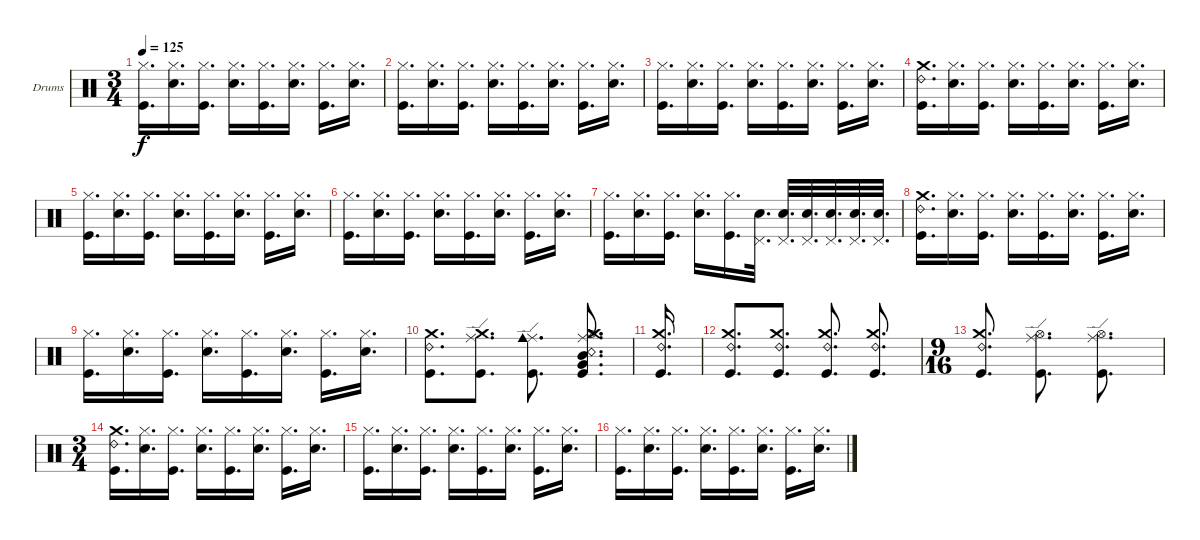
\defaultSystemsLayout 4
\bracketExtendMode groupsimilarinstruments
\firstSystemTrackNameOrientation horizontal
\otherSystemsTrackNameOrientation horizontal
\track ("Drumkit" "Drums") {instrument percussion}
\staff {score}
\articulation defaults
\ts (3 4)
\tempo 125
\clef neutral
\ks c
("Kick (hit)" "Hi-Hat (closed)").16{d dy f} ("Snare (hit) 2" "Hi-Hat (closed)").16{d} ("Kick (hit)" "Hi-Hat (closed)").16{d} ("Snare (hit) 2" "Hi-Hat (closed)").16{d} ("Kick (hit)" "Hi-Hat (closed)").16{d} ("Snare (hit) 2" "Hi-Hat (closed)").16{d} ("Kick (hit)" "Hi-Hat (closed)").16{d} ("Snare (hit) 2" "Hi-Hat (closed)").16{d} |
("Kick (hit)" "Hi-Hat (closed)").16{d} ("Snare (hit) 2" "Hi-Hat (closed)").16{d} ("Kick (hit)" "Hi-Hat (closed)").16{d} ("Snare (hit) 2" "Hi-Hat (closed)").16{d} ("Kick (hit)" "Hi-Hat (closed)").16{d} ("Snare (hit) 2" "Hi-Hat (closed)").16{d} ("Kick (hit)" "Hi-Hat (closed)").16{d} ("Snare (hit) 2" "Hi-Hat (closed)").16{d} |
("Kick (hit)" "Hi-Hat (closed)").16{d} ("Snare (hit) 2" "Hi-Hat (closed)").16{d} ("Kick (hit)" "Hi-Hat (closed)").16{d} ("Snare (hit) 2" "Hi-Hat (closed)").16{d} ("Kick (hit)" "Hi-Hat (closed)").16{d} ("Snare (hit) 2" "Hi-Hat (closed)").16{d} ("Kick (hit)" "Hi-Hat (closed)").16{d} ("Snare (hit) 2" "Hi-Hat (closed)").16{d} |
("Kick (hit)" "Crash medium (hit)" "Ride (bell) 2").16{d} ("Snare (hit) 2" "Hi-Hat (closed)").16{d} ("Kick (hit)" "Hi-Hat (closed)").16{d} ("Snare (hit) 2" "Hi-Hat (closed)").16{d} ("Kick (hit)" "Hi-Hat (closed)").16{d} ("Snare (hit) 2" "Hi-Hat (closed)").16{d} ("Kick (hit)" "Hi-Hat (closed)").16{d} ("Snare (hit) 2" "Hi-Hat (closed)").16{d} |
("Kick (hit)" "Hi-Hat (closed)").16{d} ("Snare (hit) 2" "Hi-Hat (closed)").16{d} ("Kick (hit)" "Hi-Hat (closed)").16{d} ("Snare (hit) 2" "Hi-Hat (closed)").16{d} ("Kick (hit)" "Hi-Hat (closed)").16{d} ("Snare (hit) 2" "Hi-Hat (closed)").16{d} ("Kick (hit)" "Hi-Hat (closed)").16{d} ("Snare (hit) 2" "Hi-Hat (closed)").16{d} |
("Kick (hit)" "Hi-Hat (closed)").16{d} ("Snare (hit) 2" "Hi-Hat (closed)").16{d} ("Kick (hit)" "Hi-Hat (closed)").16{d} ("Snare (hit) 2" "Hi-Hat (closed)").16{d} ("Kick (hit)" "Hi-Hat (closed)").16{d} ("Snare (hit) 2" "Hi-Hat (closed)").16{d} ("Kick (hit)" "Hi-Hat (closed)").16{d} ("Snare (hit) 2" "Hi-Hat (closed)").16{d} |
("Kick (hit)" "Hi-Hat (closed)").16{d} ("Snare (hit) 2" "Hi-Hat (closed)").16{d} ("Kick (hit)" "Hi-Hat (closed)").16{d} ("Snare (hit) 2" "Hi-Hat (closed)").16{d} ("Kick (hit)" "Hi-Hat (closed)").16{d} ("Pedal Hi-Hat (hit)" "Snare (hit) 2").32{d} ("Pedal Hi-Hat (hit)" "Snare (hit) 2").32{d} ("Pedal Hi-Hat (hit)" "Snare (hit) 2").32{d} ("Pedal Hi-Hat (hit)" "Snare (hit) 2").32{d} ("Pedal Hi-Hat (hit)" "Snare (hit) 2").32{d} ("Pedal Hi-Hat (hit)" "Snare (hit) 2").32{d} |
("Kick (hit)" "Crash medium (hit)" "Ride (bell) 2").16{d} ("Snare (hit) 2" "Hi-Hat (closed)").16{d} ("Kick (hit)" "Hi-Hat (closed)").16{d} ("Snare (hit) 2" "Hi-Hat (closed)").16{d} ("Kick (hit)" "Hi-Hat (closed)").16{d} ("Snare (hit) 2" "Hi-Hat (closed)").16{d} ("Kick (hit)" "Hi-Hat (closed)").16{d} ("Snare (hit) 2" "Hi-Hat (closed)").16{d} |
("Kick (hit)" "Hi-Hat (closed)").16{d} ("Snare (hit) 2" "Hi-Hat (closed)").16{d} ("Kick (hit)" "Hi-Hat (closed)").16{d} ("Snare (hit) 2" "Hi-Hat (closed)").16{d} ("Kick (hit)" "Hi-Hat (closed)").16{d} ("Snare (hit) 2" "Hi-Hat (closed)").16{d} ("Kick (hit)" "Hi-Hat (closed)").16{d} ("Snare (hit) 2" "Hi-Hat (closed)").16{d} |
("Kick (hit)" "Crash medium (hit)" "Ride (bell) 2").8{d} ("Kick (hit)" "Crash medium (hit)" "Ride (edge)").8{d} ("Kick (hit)" "Ride (edge)" "Cowbell medium (hit)").8{d} ("Kick (hit)" "Crash medium (hit)" "Ride (middle)" "Snare (rim shot)" "Hi-Hat (open)" "Mid Tom (hit)" "Very Low Tom (hit)").8{d} |
("Kick (hit)" "Crash medium (hit)" "Ride (bell) 2").16{d} |
("Kick (hit)" "Crash medium (hit)" "Ride (bell) 2").8{d} ("Kick (hit)" "Crash medium (hit)" "Ride (bell) 2").8{d} ("Kick (hit)" "Crash medium (hit)" "Ride (bell) 2").8{d} ("Kick (hit)" "Crash medium (hit)" "Ride (bell) 2").8{d} |
\ts (9 16)
("Kick (hit)" "Crash medium (hit)" "Ride (bell) 2").8{d} ("Kick (hit)" "Hi-Hat (open)" "Ride (edge)").8{d} ("Kick (hit)" "Hi-Hat (open)" "Ride (edge)").8{d} |
\ts (3 4)
("Kick (hit)" "Crash medium (hit)" "Ride (bell) 2").16{d} ("Snare (hit) 2" "Hi-Hat (closed)").16{d} ("Kick (hit)" "Hi-Hat (closed)").16{d} ("Snare (hit) 2" "Hi-Hat (closed)").16{d} ("Kick (hit)" "Hi-Hat (closed)").16{d} ("Snare (hit) 2" "Hi-Hat (closed)").16{d} ("Kick (hit)" "Hi-Hat (closed)").16{d} ("Snare (hit) 2" "Hi-Hat (closed)").16{d} |
("Kick (hit)" "Hi-Hat (closed)").16{d} ("Snare (hit) 2" "Hi-Hat (closed)").16{d} ("Kick (hit)" "Hi-Hat (closed)").16{d} ("Snare (hit) 2" "Hi-Hat (closed)").16{d} ("Kick (hit)" "Hi-Hat (closed)").16{d} ("Snare (hit) 2" "Hi-Hat (closed)").16{d} ("Kick (hit)" "Hi-Hat (closed)").16{d} ("Snare (hit) 2" "Hi-Hat (closed)").16{d} |
("Kick (hit)" "Hi-Hat (closed)").16{d} ("Snare (hit) 2" "Hi-Hat (closed)").16{d} ("Kick (hit)" "Hi-Hat (closed)").16{d} ("Snare (hit) 2" "Hi-Hat (closed)").16{d} ("Kick (hit)" "Hi-Hat (closed)").16{d} ("Snare (hit) 2" "Hi-Hat (closed)").16{d} ("Kick (hit)" "Hi-Hat (closed)").16{d} ("Snare (hit) 2" "Hi-Hat (closed)").16{d}
